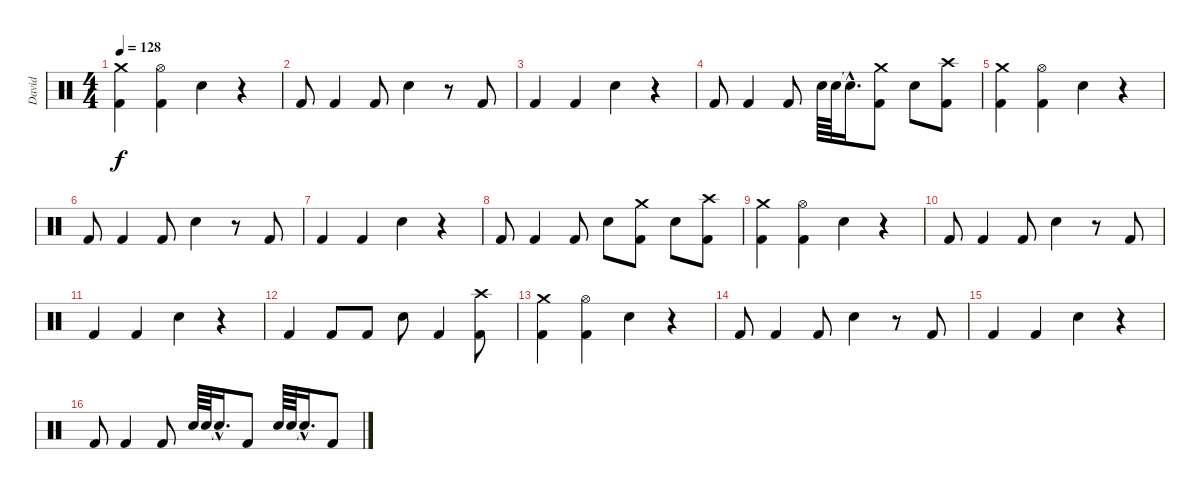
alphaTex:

\track ("David" "David") {instrument percussion}
\staff {score}
\articulation defaults
\ts (4 4)
\tempo 128
\clef neutral
\ks c
("Crash medium (hit)" "Kick (hit) 2").4{dy f} ("Hi-Hat (open)" "Kick (hit) 2").4 "Snare (hit) 2".4 r.4 |
"Kick (hit) 2".8 "Kick (hit) 2".4 "Kick (hit) 2".8 "Snare (hit) 2".4 r.8 "Kick (hit) 2".8 |
"Kick (hit) 2".4 "Kick (hit) 2".4 "Snare (hit) 2".4 r.4 |
"Kick (hit) 2".8 "Kick (hit) 2".4 "Kick (hit) 2".8 "Snare (hit) 2".64 "Snare (hit) 2".64 "Snare (hit)"{hac t}.16{d} ("Crash medium (hit)" "Kick (hit) 2").8 "Snare (hit) 2".8 ("Crash high (hit)" "Kick (hit) 2").8 |
("Crash medium (hit)" "Kick (hit) 2").4 ("Hi-Hat (open)" "Kick (hit) 2").4 "Snare (hit) 2".4 r.4 |
"Kick (hit) 2".8 "Kick (hit) 2".4 "Kick (hit) 2".8 "Snare (hit) 2".4 r.8 "Kick (hit) 2".8 |
"Kick (hit) 2".4 "Kick (hit) 2".4 "Snare (hit) 2".4 r.4 |
"Kick (hit) 2".8 "Kick (hit) 2".4 "Kick (hit) 2".8 "Snare (hit) 2".8 ("Crash medium (hit)" "Kick (hit) 2").8 "Snare (hit) 2".8 ("Crash high (hit)" "Kick (hit) 2").8 |
("Crash medium (hit)" "Kick (hit) 2").4 ("Hi-Hat (open)" "Kick (hit) 2").4 "Snare (hit) 2".4 r.4 |
"Kick (hit) 2".8 "Kick (hit) 2".4 "Kick (hit) 2".8 "Snare (hit) 2".4 r.8 "Kick (hit) 2".8 |
"Kick (hit) 2".4 "Kick (hit) 2".4 "Snare (hit) 2".4 r.4 |
"Kick (hit) 2".4 "Kick (hit) 2".8 "Kick (hit) 2".8 "Snare (hit) 2".8 "Kick (hit) 2".4 ("Crash high (hit)" "Kick (hit) 2").8 |
("Crash medium (hit)" "Kick (hit) 2").4 ("Hi-Hat (open)" "Kick (hit) 2").4 "Snare (hit) 2".4 r.4 |
"Kick (hit) 2".8 "Kick (hit) 2".4 "Kick (hit) 2".8 "Snare (hit) 2".4 r.8 "Kick (hit) 2".8 |
"Kick (hit) 2".4 "Kick (hit) 2".4 "Snare (hit) 2".4 r.4 |
"Kick (hit) 2".8 "Kick (hit) 2".4 "Kick (hit) 2".8 "Snare (hit) 2".64 "Snare (hit) 2".64 "Snare (hit)"{hac t}.16{d} "Kick (hit) 2".8 "Snare (hit) 2".64 "Snare (hit) 2".64 "Snare (hit)"{hac t}.16{d} "Kick (hit) 2".8
